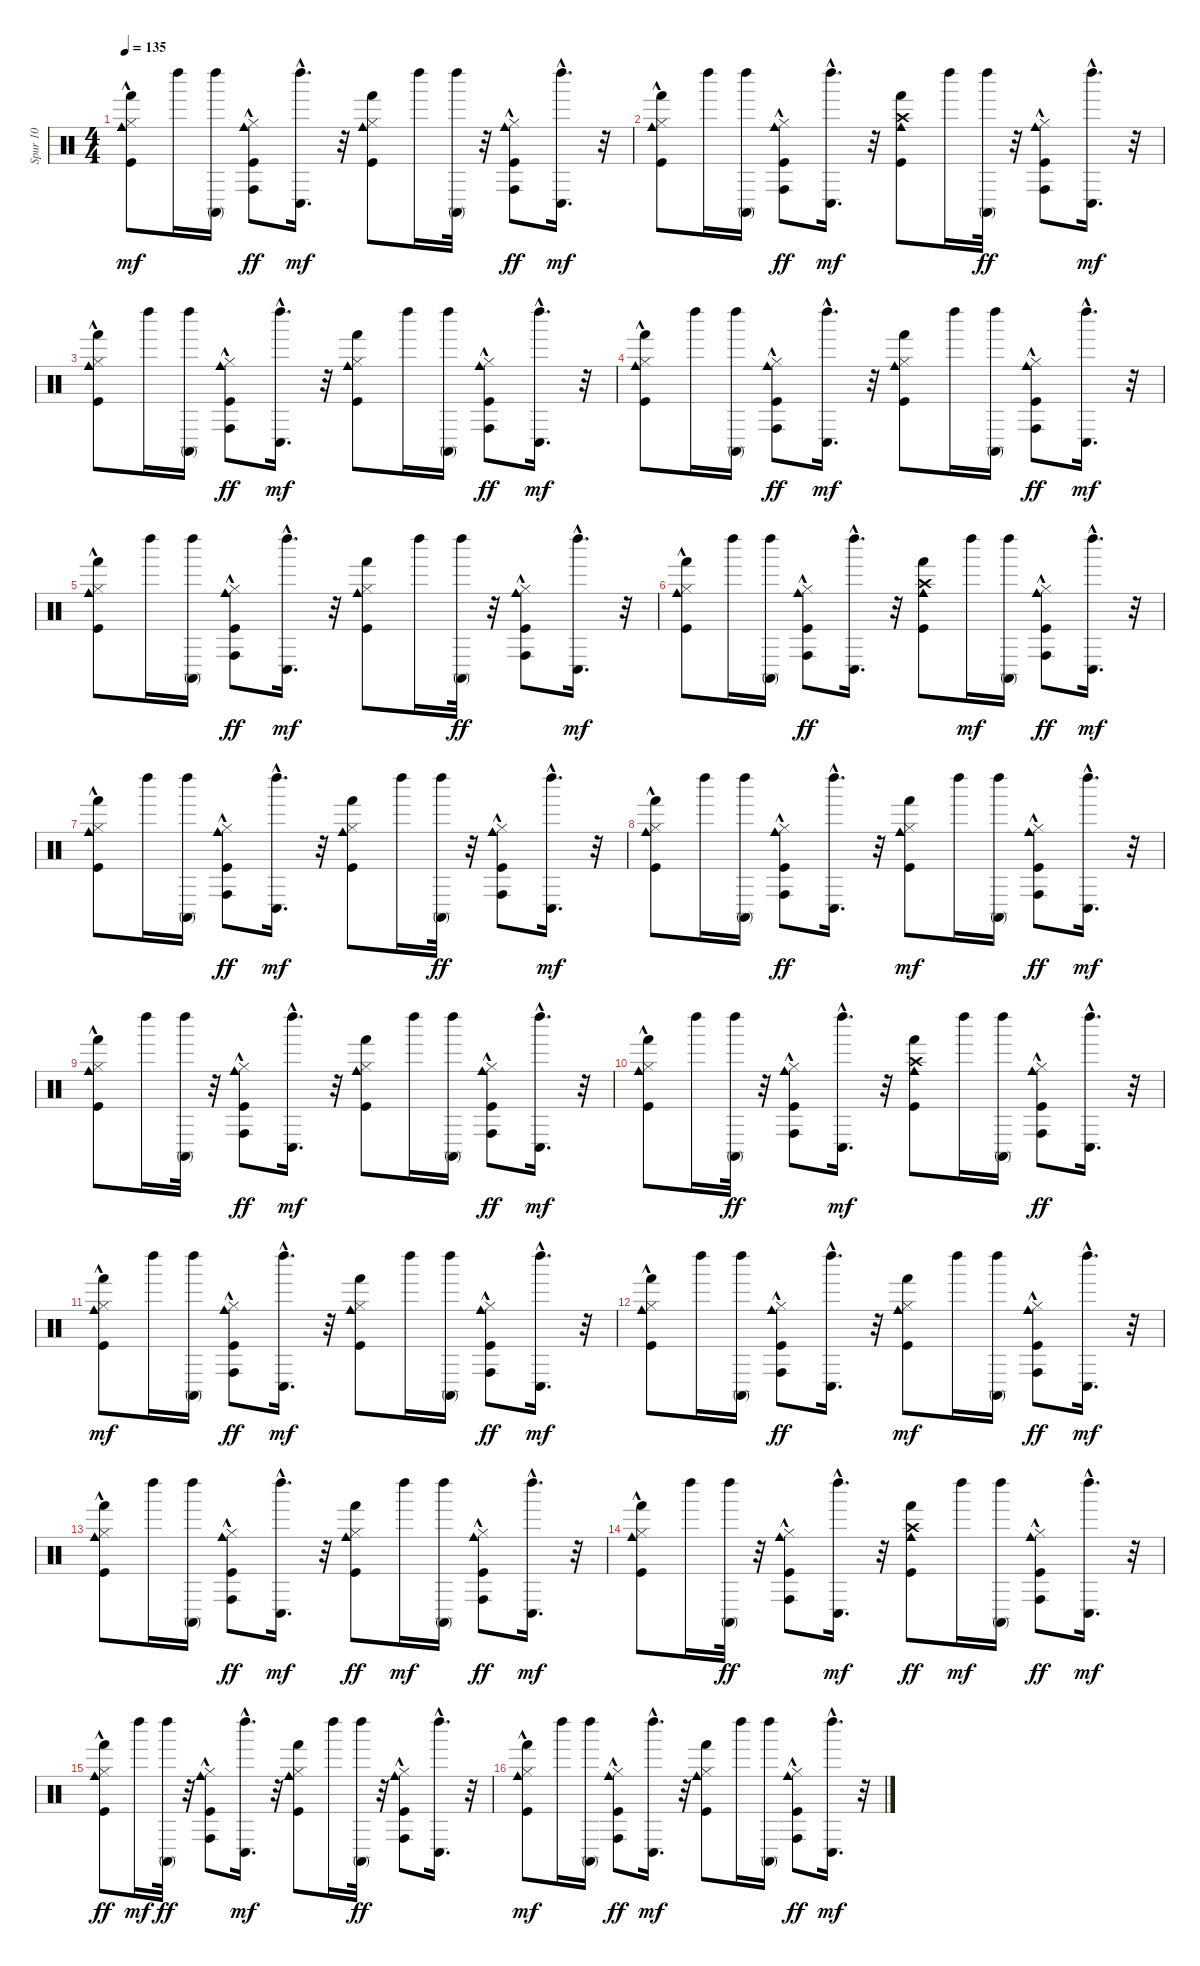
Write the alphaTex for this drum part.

\track ("Spur 10" "Spur 10") {instrument percussion}
\staff {score}
\articulation defaults
\ts (4 4)
\tempo 135
\clef neutral
\ks c
("Kick (hit)" "Hi-Hat (closed)" "Cowbell medium (hit)" "Hand (hit)"{hac}).8{dy mf} "Left Maraca (hit)".16 ("Conga high (mute)" "Left Maraca (hit)").16 ("Kick (hit)"{hac} "Hi-Hat (closed)" "Cowbell medium (hit)" "Conga high (hit)"{hac}).8{dy ff} ("Conga low (hit)"{hac} "Left Maraca (hit)").16{d dy mf} r.32 ("Kick (hit)" "Hi-Hat (closed)" "Cowbell medium (hit)" "Hand (hit)").8 "Left Maraca (hit)".16 ("Conga high (mute)" "Left Maraca (hit)").32 r.32 ("Kick (hit)" "Hi-Hat (closed)" "Cowbell medium (hit)" "Conga high (hit)"{hac}).8{dy ff} ("Conga low (hit)"{hac} "Left Maraca (hit)").16{d dy mf} r.32 |
("Kick (hit)" "Hi-Hat (closed)" "Cowbell medium (hit)" "Hand (hit)"{hac}).8 "Left Maraca (hit)".16 ("Conga high (mute)" "Left Maraca (hit)").16 ("Kick (hit)"{hac} "Hi-Hat (closed)" "Cowbell medium (hit)" "Conga high (hit)"{hac}).8{dy ff} ("Conga low (hit)"{hac} "Left Maraca (hit)").16{d dy mf} r.32 ("Kick (hit)" "Crash high (hit)" "Cowbell medium (hit)" "Hand (hit)").8 "Left Maraca (hit)".16 ("Left Maraca (hit)" "Conga high (mute)").32{dy ff} r.32 ("Kick (hit)" "Hi-Hat (closed)" "Cowbell medium (hit)" "Conga high (hit)"{hac}).8 ("Conga low (hit)"{hac} "Left Maraca (hit)").16{d dy mf} r.32 |
("Kick (hit)" "Hi-Hat (closed)" "Cowbell medium (hit)" "Hand (hit)"{hac}).8 "Left Maraca (hit)".16 ("Conga high (mute)" "Left Maraca (hit)").16 ("Hi-Hat (closed)" "Kick (hit)"{hac} "Cowbell medium (hit)" "Conga high (hit)"{hac}).8{dy ff} ("Conga low (hit)"{hac} "Left Maraca (hit)").16{d dy mf} r.32 ("Kick (hit)" "Hi-Hat (closed)" "Cowbell medium (hit)" "Hand (hit)").8 "Left Maraca (hit)".16 ("Conga high (mute)" "Left Maraca (hit)").16 ("Kick (hit)" "Hi-Hat (closed)" "Cowbell medium (hit)" "Conga high (hit)"{hac}).8{dy ff} ("Conga low (hit)"{hac} "Left Maraca (hit)").16{d dy mf} r.32 |
("Hi-Hat (closed)" "Kick (hit)" "Cowbell medium (hit)" "Hand (hit)"{hac}).8 "Left Maraca (hit)".16 ("Conga high (mute)" "Left Maraca (hit)").16 ("Kick (hit)"{hac} "Hi-Hat (closed)" "Cowbell medium (hit)" "Conga high (hit)"{hac}).8{dy ff} ("Conga low (hit)"{hac} "Left Maraca (hit)").16{d dy mf} r.32 ("Kick (hit)" "Hi-Hat (closed)" "Cowbell medium (hit)" "Hand (hit)").8 "Left Maraca (hit)".16 ("Conga high (mute)" "Left Maraca (hit)").16 ("Hi-Hat (closed)" "Kick (hit)" "Cowbell medium (hit)" "Conga high (hit)"{hac}).8{dy ff} ("Conga low (hit)"{hac} "Left Maraca (hit)").16{d dy mf} r.32 |
("Kick (hit)" "Hi-Hat (closed)" "Cowbell medium (hit)" "Hand (hit)"{hac}).8 "Left Maraca (hit)".16 ("Conga high (mute)" "Left Maraca (hit)").16 ("Kick (hit)"{hac} "Hi-Hat (closed)" "Cowbell medium (hit)" "Conga high (hit)"{hac}).8{dy ff} ("Conga low (hit)"{hac} "Left Maraca (hit)").16{d dy mf} r.32 ("Kick (hit)" "Hi-Hat (closed)" "Cowbell medium (hit)" "Hand (hit)").8 "Left Maraca (hit)".16 ("Left Maraca (hit)" "Conga high (mute)").32{dy ff} r.32 ("Kick (hit)" "Hi-Hat (closed)" "Cowbell medium (hit)" "Conga high (hit)"{hac}).8 ("Conga low (hit)"{hac} "Left Maraca (hit)").16{d dy mf} r.32 |
("Kick (hit)" "Hi-Hat (closed)" "Cowbell medium (hit)" "Hand (hit)"{hac}).8 "Left Maraca (hit)".16 ("Conga high (mute)" "Left Maraca (hit)").16 ("Kick (hit)"{hac} "Hi-Hat (closed)" "Cowbell medium (hit)" "Conga high (hit)"{hac}).8{dy ff} ("Left Maraca (hit)" "Conga low (hit)"{hac}).16{d} r.32 ("Crash high (hit)" "Cowbell medium (hit)" "Kick (hit)" "Hand (hit)").8 "Left Maraca (hit)".16{dy mf} ("Conga high (mute)" "Left Maraca (hit)").16 ("Kick (hit)" "Hi-Hat (closed)" "Cowbell medium (hit)" "Conga high (hit)"{hac}).8{dy ff} ("Conga low (hit)"{hac} "Left Maraca (hit)").16{d dy mf} r.32 |
("Kick (hit)" "Hi-Hat (closed)" "Cowbell medium (hit)" "Hand (hit)"{hac}).8 "Left Maraca (hit)".16 ("Conga high (mute)" "Left Maraca (hit)").16 ("Kick (hit)"{hac} "Hi-Hat (closed)" "Cowbell medium (hit)" "Conga high (hit)"{hac}).8{dy ff} ("Conga low (hit)"{hac} "Left Maraca (hit)").16{d dy mf} r.32 ("Kick (hit)" "Hi-Hat (closed)" "Cowbell medium (hit)" "Hand (hit)").8 "Left Maraca (hit)".16 ("Left Maraca (hit)" "Conga high (mute)").32{dy ff} r.32 ("Hi-Hat (closed)" "Kick (hit)" "Cowbell medium (hit)" "Conga high (hit)"{hac}).8 ("Conga low (hit)"{hac} "Left Maraca (hit)").16{d dy mf} r.32 |
("Hi-Hat (closed)" "Kick (hit)" "Cowbell medium (hit)" "Hand (hit)"{hac}).8 "Left Maraca (hit)".16 ("Conga high (mute)" "Left Maraca (hit)").16 ("Kick (hit)"{hac} "Hi-Hat (closed)" "Cowbell medium (hit)" "Conga high (hit)"{hac}).8{dy ff} ("Left Maraca (hit)" "Conga low (hit)"{hac}).16{d} r.32 ("Kick (hit)" "Hi-Hat (closed)" "Cowbell medium (hit)" "Hand (hit)").8{dy mf} "Left Maraca (hit)".16 ("Conga high (mute)" "Left Maraca (hit)").16 ("Kick (hit)" "Hi-Hat (closed)" "Cowbell medium (hit)" "Conga high (hit)"{hac}).8{dy ff} ("Conga low (hit)"{hac} "Left Maraca (hit)").16{d dy mf} r.32 |
("Kick (hit)" "Hi-Hat (closed)" "Cowbell medium (hit)" "Hand (hit)"{hac}).8 "Left Maraca (hit)".16 ("Conga high (mute)" "Left Maraca (hit)").32 r.32 ("Hi-Hat (closed)" "Cowbell medium (hit)" "Kick (hit)"{hac} "Conga high (hit)"{hac}).8{dy ff} ("Conga low (hit)"{hac} "Left Maraca (hit)").16{d dy mf} r.32 ("Kick (hit)" "Hi-Hat (closed)" "Cowbell medium (hit)" "Hand (hit)").8 "Left Maraca (hit)".16 ("Conga high (mute)" "Left Maraca (hit)").16 ("Kick (hit)" "Hi-Hat (closed)" "Cowbell medium (hit)" "Conga high (hit)"{hac}).8{dy ff} ("Conga low (hit)"{hac} "Left Maraca (hit)").16{d dy mf} r.32 |
("Kick (hit)" "Hi-Hat (closed)" "Cowbell medium (hit)" "Hand (hit)"{hac}).8 "Left Maraca (hit)".16 ("Left Maraca (hit)" "Conga high (mute)").32{dy ff} r.32 ("Hi-Hat (closed)" "Kick (hit)"{hac} "Cowbell medium (hit)" "Conga high (hit)"{hac}).8 ("Conga low (hit)"{hac} "Left Maraca (hit)").16{d dy mf} r.32 ("Kick (hit)" "Crash high (hit)" "Cowbell medium (hit)" "Hand (hit)").8 "Left Maraca (hit)".16 ("Conga high (mute)" "Left Maraca (hit)").16 ("Kick (hit)" "Hi-Hat (closed)" "Cowbell medium (hit)" "Conga high (hit)"{hac}).8{dy ff} ("Left Maraca (hit)" "Conga low (hit)"{hac}).16{d} r.32 |
("Hi-Hat (closed)" "Kick (hit)" "Cowbell medium (hit)" "Hand (hit)"{hac}).8{dy mf} "Left Maraca (hit)".16 ("Conga high (mute)" "Left Maraca (hit)").16 ("Hi-Hat (closed)" "Kick (hit)"{hac} "Cowbell medium (hit)" "Conga high (hit)"{hac}).8{dy ff} ("Conga low (hit)"{hac} "Left Maraca (hit)").16{d dy mf} r.32 ("Kick (hit)" "Hi-Hat (closed)" "Cowbell medium (hit)" "Hand (hit)").8 "Left Maraca (hit)".16 ("Conga high (mute)" "Left Maraca (hit)").16 ("Kick (hit)" "Hi-Hat (closed)" "Cowbell medium (hit)" "Conga high (hit)"{hac}).8{dy ff} ("Conga low (hit)"{hac} "Left Maraca (hit)").16{d dy mf} r.32 |
("Kick (hit)" "Hi-Hat (closed)" "Cowbell medium (hit)" "Hand (hit)"{hac}).8 "Left Maraca (hit)".16 ("Conga high (mute)" "Left Maraca (hit)").16 ("Kick (hit)"{hac} "Hi-Hat (closed)" "Cowbell medium (hit)" "Conga high (hit)"{hac}).8{dy ff} ("Left Maraca (hit)" "Conga low (hit)"{hac}).16{d} r.32 ("Kick (hit)" "Hi-Hat (closed)" "Cowbell medium (hit)" "Hand (hit)").8{dy mf} "Left Maraca (hit)".16 ("Conga high (mute)" "Left Maraca (hit)").16 ("Kick (hit)" "Hi-Hat (closed)" "Cowbell medium (hit)" "Conga high (hit)"{hac}).8{dy ff} ("Conga low (hit)"{hac} "Left Maraca (hit)").16{d dy mf} r.32 |
("Kick (hit)" "Hi-Hat (closed)" "Cowbell medium (hit)" "Hand (hit)"{hac}).8 "Left Maraca (hit)".16 ("Conga high (mute)" "Left Maraca (hit)").16 ("Hi-Hat (closed)" "Kick (hit)"{hac} "Cowbell medium (hit)" "Conga high (hit)"{hac}).8{dy ff} ("Conga low (hit)"{hac} "Left Maraca (hit)").16{d dy mf} r.32 ("Hi-Hat (closed)" "Cowbell medium (hit)" "Kick (hit)" "Hand (hit)").8{dy ff} "Left Maraca (hit)".16{dy mf} ("Conga high (mute)" "Left Maraca (hit)").16 ("Kick (hit)" "Hi-Hat (closed)" "Cowbell medium (hit)" "Conga high (hit)"{hac}).8{dy ff} ("Conga low (hit)"{hac} "Left Maraca (hit)").16{d dy mf} r.32 |
("Kick (hit)" "Hi-Hat (closed)" "Cowbell medium (hit)" "Hand (hit)"{hac}).8 "Left Maraca (hit)".16 ("Left Maraca (hit)" "Conga high (mute)").32{dy ff} r.32 ("Kick (hit)"{hac} "Hi-Hat (closed)" "Cowbell medium (hit)" "Conga high (hit)"{hac}).8 ("Conga low (hit)"{hac} "Left Maraca (hit)").16{d dy mf} r.32 ("Crash high (hit)" "Cowbell medium (hit)" "Kick (hit)" "Hand (hit)").8{dy ff} "Left Maraca (hit)".16{dy mf} ("Conga high (mute)" "Left Maraca (hit)").16 ("Hi-Hat (closed)" "Kick (hit)" "Cowbell medium (hit)" "Conga high (hit)"{hac}).8{dy ff} ("Conga low (hit)"{hac} "Left Maraca (hit)").16{d dy mf} r.32 |
("Hi-Hat (closed)" "Cowbell medium (hit)" "Kick (hit)" "Hand (hit)"{hac}).8{dy ff} "Left Maraca (hit)".16{dy mf} ("Left Maraca (hit)" "Conga high (mute)").32{dy ff} r.32 ("Kick (hit)"{hac} "Hi-Hat (closed)" "Cowbell medium (hit)" "Conga high (hit)"{hac}).8 ("Conga low (hit)"{hac} "Left Maraca (hit)").16{d dy mf} r.32 ("Kick (hit)" "Hi-Hat (closed)" "Cowbell medium (hit)" "Hand (hit)").8 "Left Maraca (hit)".16 ("Left Maraca (hit)" "Conga high (mute)").32{dy ff} r.32 ("Hi-Hat (closed)" "Kick (hit)" "Cowbell medium (hit)" "Conga high (hit)"{hac}).8 ("Left Maraca (hit)" "Conga low (hit)"{hac}).16{d} r.32 |
("Kick (hit)" "Hi-Hat (closed)" "Cowbell medium (hit)" "Hand (hit)"{hac}).8{dy mf} "Left Maraca (hit)".16 ("Conga high (mute)" "Left Maraca (hit)").16 ("Kick (hit)"{hac} "Hi-Hat (closed)" "Cowbell medium (hit)" "Conga high (hit)"{hac}).8{dy ff} ("Conga low (hit)"{hac} "Left Maraca (hit)").16{d dy mf} r.32 ("Hi-Hat (closed)" "Kick (hit)" "Cowbell medium (hit)" "Hand (hit)").8 "Left Maraca (hit)".16 ("Conga high (mute)" "Left Maraca (hit)").16 ("Hi-Hat (closed)" "Kick (hit)" "Cowbell medium (hit)" "Conga high (hit)"{hac}).8{dy ff} ("Conga low (hit)"{hac} "Left Maraca (hit)").16{d dy mf} r.32
